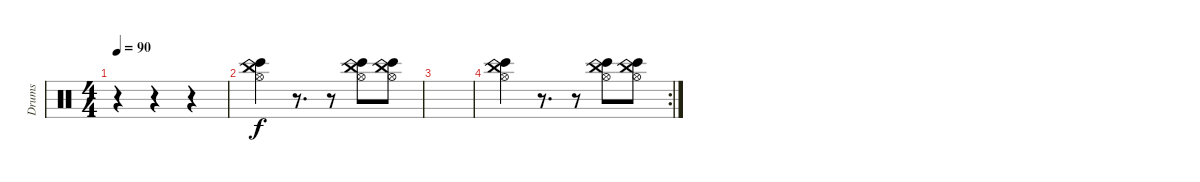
\track ("Drums" "Drums") {instrument percussion}
\staff {score}
\articulation defaults
\ts (4 4)
\tempo 90
\clef neutral
\ks c
r.4{dy f} r.4 r.4 |
("China (hit)" "Hi-Hat (open)" "Bongo High (hit)").4 r.8{d} r.8 ("China (hit)" "Hi-Hat (open)" "Bongo High (hit)").8 ("China (hit)" "Hi-Hat (open)" "Bongo High (hit)").8 |
|
\rc 2
("China (hit)" "Hi-Hat (open)" "Bongo High (hit)").4 r.8{d} r.8 ("China (hit)" "Hi-Hat (open)" "Bongo High (hit)").8 ("China (hit)" "Hi-Hat (open)" "Bongo High (hit)").8
